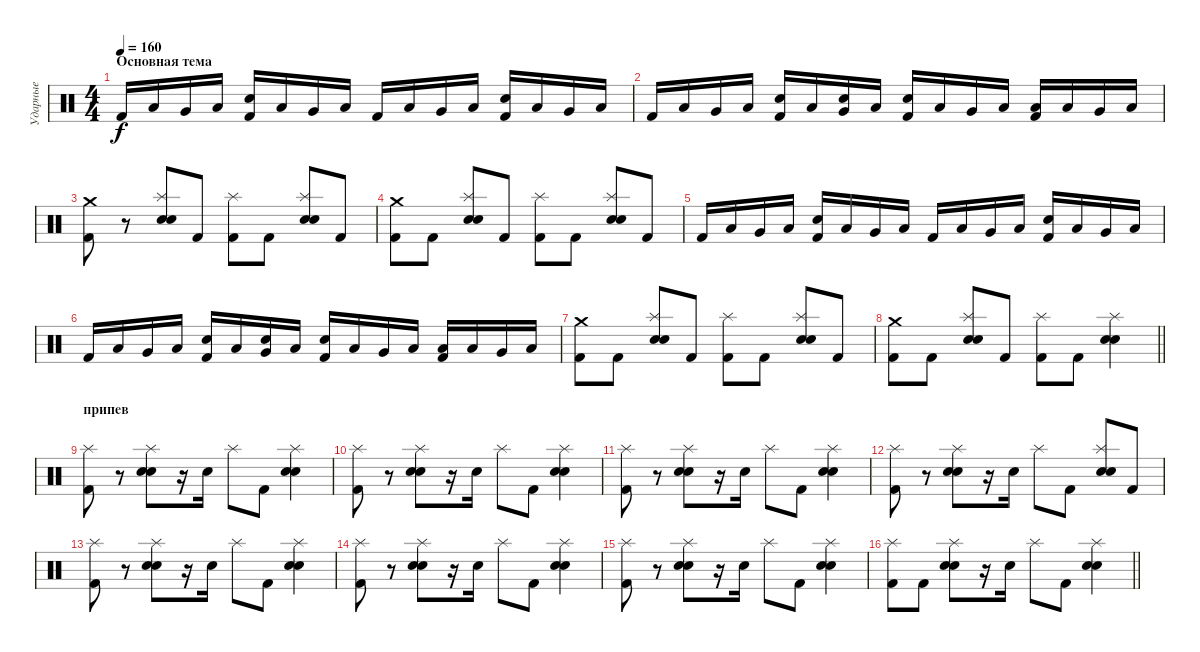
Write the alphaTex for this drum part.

\track ("Ударные" "Ударные") {instrument percussion}
\staff {score}
\articulation defaults
\ts (4 4)
\section ("" "Основная тема")
\tempo 160
\clef neutral
\ks c "Kick (hit) 2".16{dy f} "Low Tom (hit)".16 "Very Low Tom (hit)".16 "Low Floor Tom (hit)".16
("Electric Snare (hit)" "Kick (hit) 2").16 "Low Tom (hit)".16 "Very Low Tom (hit)".16 "Low Floor Tom (hit)".16 "Kick (hit) 2".16 "Low Tom (hit)".16 "Very Low Tom (hit)".16 "Low Floor Tom (hit)".16 ("Electric Snare (hit)" "Kick (hit) 2").16 "Low Tom (hit)".16 "Very Low Tom (hit)".16 "Low Floor Tom (hit)".16 |
"Kick (hit) 2".16 "Low Tom (hit)".16 "Very Low Tom (hit)".16 "Low Floor Tom (hit)".16 ("Electric Snare (hit)" "Kick (hit) 2").16 "Low Tom (hit)".16 ("Electric Snare (hit)" "Very Low Tom (hit)").16 "Low Floor Tom (hit)".16 ("Electric Snare (hit)" "Kick (hit) 2").16 "Low Tom (hit)".16 "Very Low Tom (hit)".16 "Low Floor Tom (hit)".16 ("Low Tom (hit)" "Kick (hit) 2").16 "Low Tom (hit)".16 "Very Low Tom (hit)".16 "Low Floor Tom (hit)".16 |
("Crash medium (hit)" "Kick (hit) 2").8 r.8 ("Splash (hit)" "Electric Snare (hit)" "Snare (hit) 2").8 "Kick (hit) 2".8 ("Splash (hit)" "Kick (hit) 2").8 "Kick (hit) 2".8 ("Splash (hit)" "Electric Snare (hit)" "Snare (hit) 2").8 "Kick (hit) 2".8 |
("Crash medium (hit)" "Kick (hit) 2").8 "Kick (hit) 2".8 ("Splash (hit)" "Electric Snare (hit)" "Snare (hit) 2").8 "Kick (hit) 2".8 ("Splash (hit)" "Kick (hit) 2").8 "Kick (hit) 2".8 ("Splash (hit)" "Electric Snare (hit)" "Snare (hit) 2").8 "Kick (hit) 2".8 |
"Kick (hit) 2".16 "Low Tom (hit)".16 "Very Low Tom (hit)".16 "Low Floor Tom (hit)".16 ("Electric Snare (hit)" "Kick (hit) 2").16 "Low Tom (hit)".16 "Very Low Tom (hit)".16 "Low Floor Tom (hit)".16 "Kick (hit) 2".16 "Low Tom (hit)".16 "Very Low Tom (hit)".16 "Low Floor Tom (hit)".16 ("Electric Snare (hit)" "Kick (hit) 2").16 "Low Tom (hit)".16 "Very Low Tom (hit)".16 "Low Floor Tom (hit)".16 |
"Kick (hit) 2".16 "Low Tom (hit)".16 "Very Low Tom (hit)".16 "Low Floor Tom (hit)".16 ("Electric Snare (hit)" "Kick (hit) 2").16 "Low Tom (hit)".16 ("Electric Snare (hit)" "Very Low Tom (hit)").16 "Low Floor Tom (hit)".16 ("Electric Snare (hit)" "Kick (hit) 2").16 "Low Tom (hit)".16 "Very Low Tom (hit)".16 "Low Floor Tom (hit)".16 ("Low Tom (hit)" "Kick (hit) 2").16 "Low Tom (hit)".16 "Very Low Tom (hit)".16 "Low Floor Tom (hit)".16 |
("Crash medium (hit)" "Kick (hit) 2").8 "Kick (hit) 2".8 ("Splash (hit)" "Electric Snare (hit)" "Snare (hit) 2").8 "Kick (hit) 2".8 ("Splash (hit)" "Kick (hit) 2").8 "Kick (hit) 2".8 ("Splash (hit)" "Electric Snare (hit)" "Snare (hit) 2").8 "Kick (hit) 2".8 |
\barLineRight lightlight
("Crash medium (hit)" "Kick (hit) 2").8 "Kick (hit) 2".8 ("Splash (hit)" "Electric Snare (hit)" "Snare (hit) 2").8 "Kick (hit) 2".8 ("Splash (hit)" "Kick (hit) 2").8 "Kick (hit) 2".8 ("Splash (hit)" "Electric Snare (hit)" "Snare (hit) 2").4 |
\section ("" "припев")
("Splash (hit)" "Kick (hit) 2").8 r.8 ("Splash (hit)" "Electric Snare (hit)" "Snare (hit) 2").8 r.16 "Electric Snare (hit)".16 "Splash (hit)".8 "Kick (hit) 2".8 ("Splash (hit)" "Electric Snare (hit)" "Snare (hit) 2").4 |
("Splash (hit)" "Kick (hit) 2").8 r.8 ("Splash (hit)" "Electric Snare (hit)" "Snare (hit) 2").8 r.16 "Electric Snare (hit)".16 "Splash (hit)".8 "Kick (hit) 2".8 ("Splash (hit)" "Electric Snare (hit)" "Snare (hit) 2").4 |
("Splash (hit)" "Kick (hit) 2").8 r.8 ("Splash (hit)" "Electric Snare (hit)" "Snare (hit) 2").8 r.16 "Electric Snare (hit)".16 "Splash (hit)".8 "Kick (hit) 2".8 ("Splash (hit)" "Electric Snare (hit)" "Snare (hit) 2").4 |
("Splash (hit)" "Kick (hit) 2").8 r.8 ("Splash (hit)" "Electric Snare (hit)" "Snare (hit) 2").8 r.16 "Electric Snare (hit)".16 "Splash (hit)".8 "Kick (hit) 2".8 ("Splash (hit)" "Electric Snare (hit)" "Snare (hit) 2").8 "Kick (hit) 2".8 |
("Splash (hit)" "Kick (hit) 2").8 r.8 ("Splash (hit)" "Electric Snare (hit)" "Snare (hit) 2").8 r.16 "Electric Snare (hit)".16 "Splash (hit)".8 "Kick (hit) 2".8 ("Splash (hit)" "Electric Snare (hit)" "Snare (hit) 2").4 |
("Splash (hit)" "Kick (hit) 2").8 r.8 ("Splash (hit)" "Electric Snare (hit)" "Snare (hit) 2").8 r.16 "Electric Snare (hit)".16 "Splash (hit)".8 "Kick (hit) 2".8 ("Splash (hit)" "Electric Snare (hit)" "Snare (hit) 2").4 |
("Splash (hit)" "Kick (hit) 2").8 r.8 ("Splash (hit)" "Electric Snare (hit)" "Snare (hit) 2").8 r.16 "Electric Snare (hit)".16 "Splash (hit)".8 "Kick (hit) 2".8 ("Splash (hit)" "Electric Snare (hit)" "Snare (hit) 2").4 |
\barLineRight lightlight
("Splash (hit)" "Kick (hit) 2").8 "Kick (hit) 2".8 ("Splash (hit)" "Electric Snare (hit)" "Snare (hit) 2").8 r.16 "Electric Snare (hit)".16 "Splash (hit)".8 "Kick (hit) 2".8 ("Splash (hit)" "Electric Snare (hit)" "Snare (hit) 2").4
